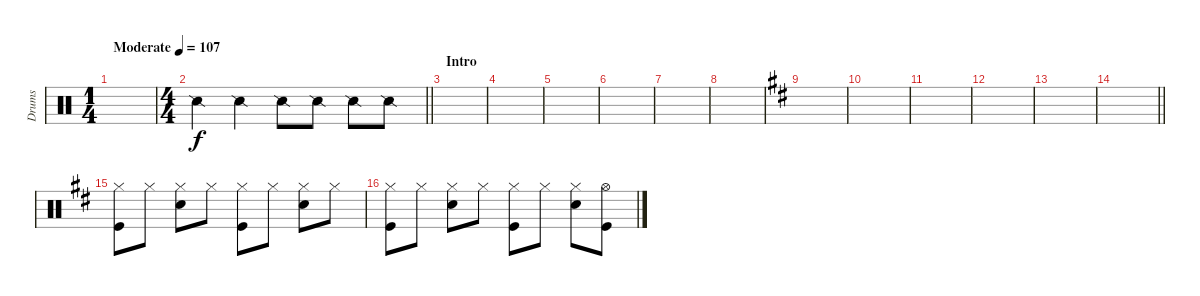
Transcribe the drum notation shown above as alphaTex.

\track ("Drums" "Drums") {instrument percussion}
\staff {score}
\articulation defaults
\ts (1 4)
\tempo (107 "Moderate")
\clef neutral
\ks c
|
\ts (4 4)
\barLineRight lightlight "Snare (side stick) 2".4 "Snare (side stick) 2".4 "Snare (side stick) 2".8 "Snare (side stick) 2".8 "Snare (side stick) 2".8 "Snare (side stick) 2".8
|
\section ("" "Intro")
|
|
|
|
|
|
\ks d
|
|
|
|
|
\barLineRight lightlight
|
("Hi-Hat (closed)" "Kick (hit)").8 "Hi-Hat (closed)".8 ("Hi-Hat (closed)" "Snare (hit) 2").8 "Hi-Hat (closed)".8 ("Hi-Hat (closed)" "Kick (hit)").8 "Hi-Hat (closed)".8 ("Hi-Hat (closed)" "Snare (hit) 2").8 "Hi-Hat (closed)".8 |
("Hi-Hat (closed)" "Kick (hit)").8 "Hi-Hat (closed)".8 ("Hi-Hat (closed)" "Snare (hit) 2").8 "Hi-Hat (closed)".8 ("Hi-Hat (closed)" "Kick (hit)").8 "Hi-Hat (closed)".8 ("Hi-Hat (closed)" "Snare (hit) 2").8 ("Hi-Hat (open)" "Kick (hit)").8
